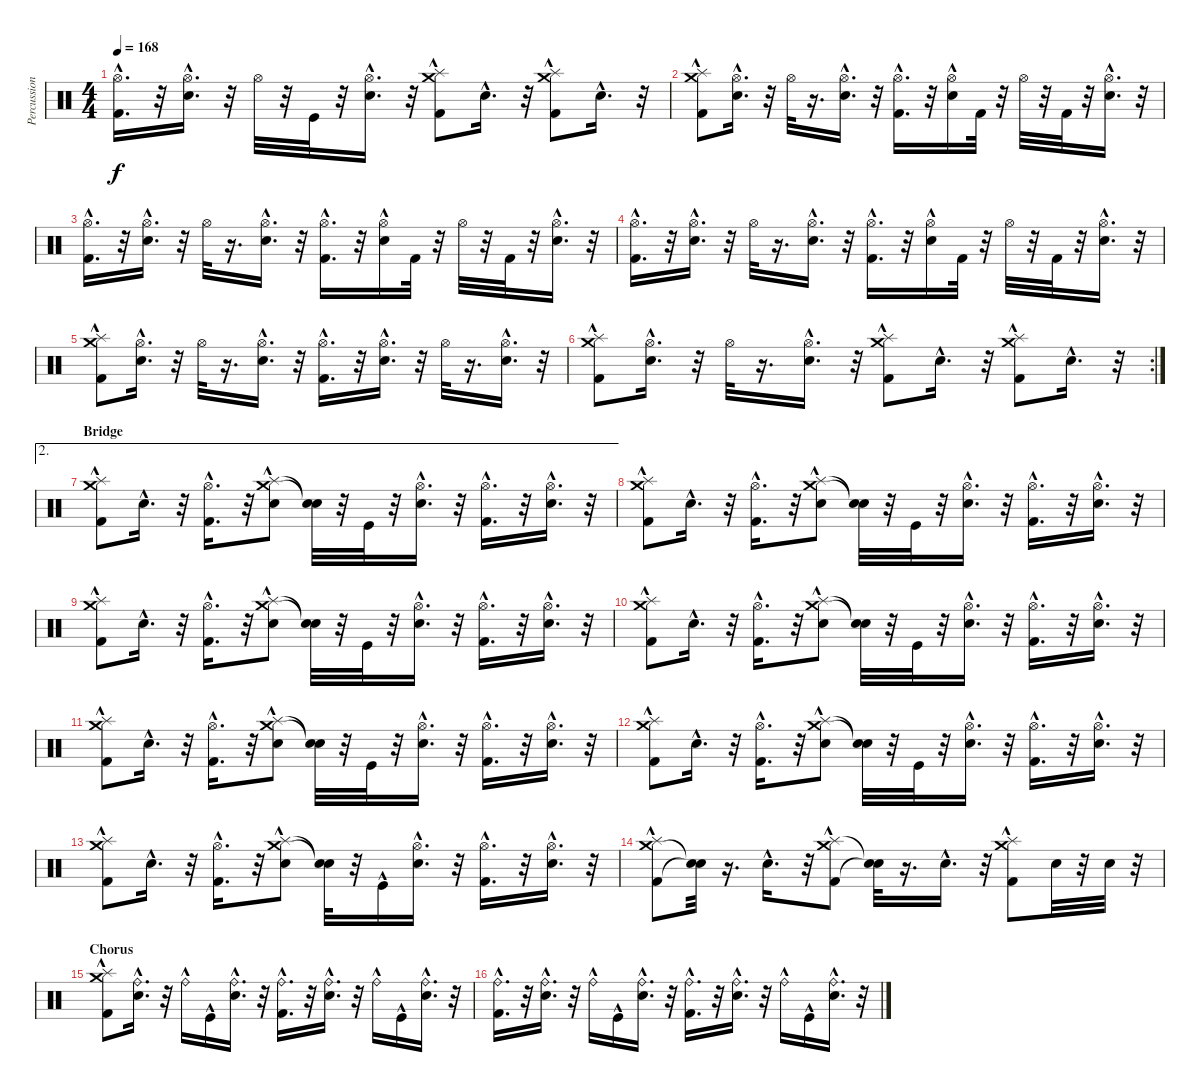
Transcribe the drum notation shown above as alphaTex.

\track ("Percussion" "Percussion") {instrument percussion}
\staff {score}
\articulation defaults
\ts (4 4)
\tempo 168
\clef neutral
\ks c
("Kick (hit) 2"{hac} "Hi-Hat (open)").16{d dy f} r.32 ("Electric Snare (hit)"{hac} "Hi-Hat (open)").16{d} r.32 "Hi-Hat (open)".32 r.32 "Kick (hit)".32 r.32 ("Electric Snare (hit)"{hac} "Hi-Hat (open)").16{d} r.32 ("Kick (hit) 2"{hac} "Splash (hit)" "Crash medium (hit)").8 "Electric Snare (hit)"{hac}.16{d} r.32 ("Kick (hit) 2"{hac} "Crash medium (hit)" "Splash (hit)").8 "Electric Snare (hit)"{hac}.16{d} r.32 |
("Crash medium (hit)" "Splash (hit)" "Kick (hit) 2"{hac}).8 ("Electric Snare (hit)"{hac} "Hi-Hat (open)").16{d} r.32 "Hi-Hat (open)".32 r.16{d} ("Electric Snare (hit)"{hac} "Hi-Hat (open)").16{d} r.32 ("Kick (hit) 2"{hac} "Hi-Hat (open)").16{d} r.32 ("Electric Snare (hit)"{hac} "Hi-Hat (open)").16 "Kick (hit) 2".32 r.32 "Hi-Hat (open)".32 r.32 "Kick (hit) 2".32 r.32 ("Electric Snare (hit)"{hac} "Hi-Hat (open)").16{d} r.32 |
("Kick (hit) 2"{hac} "Hi-Hat (open)").16{d} r.32 ("Electric Snare (hit)"{hac} "Hi-Hat (open)").16{d} r.32 "Hi-Hat (open)".32 r.16{d} ("Electric Snare (hit)"{hac} "Hi-Hat (open)").16{d} r.32 ("Kick (hit) 2"{hac} "Hi-Hat (open)").16{d} r.32 ("Electric Snare (hit)"{hac} "Hi-Hat (open)").16 "Kick (hit) 2".32 r.32 "Hi-Hat (open)".32 r.32 "Kick (hit) 2".32 r.32 ("Electric Snare (hit)"{hac} "Hi-Hat (open)").16{d} r.32 |
("Kick (hit) 2"{hac} "Hi-Hat (open)").16{d} r.32 ("Electric Snare (hit)"{hac} "Hi-Hat (open)").16{d} r.32 "Hi-Hat (open)".32 r.16{d} ("Electric Snare (hit)"{hac} "Hi-Hat (open)").16{d} r.32 ("Kick (hit) 2"{hac} "Hi-Hat (open)").16{d} r.32 ("Electric Snare (hit)"{hac} "Hi-Hat (open)").16 "Kick (hit) 2".32 r.32 "Hi-Hat (open)".32 r.32 "Kick (hit) 2".32 r.32 ("Electric Snare (hit)"{hac} "Hi-Hat (open)").16{d} r.32 |
("Crash medium (hit)" "Splash (hit)" "Kick (hit) 2"{hac}).8 ("Electric Snare (hit)"{hac} "Hi-Hat (open)").16{d} r.32 "Hi-Hat (open)".32 r.16{d} ("Electric Snare (hit)"{hac} "Hi-Hat (open)").16{d} r.32 ("Kick (hit) 2"{hac} "Hi-Hat (open)").16{d} r.32 ("Electric Snare (hit)"{hac} "Hi-Hat (open)").16{d} r.32 "Hi-Hat (open)".32 r.16{d} ("Electric Snare (hit)"{hac} "Hi-Hat (open)").16{d} r.32 |
\rc 2
("Crash medium (hit)" "Splash (hit)" "Kick (hit) 2"{hac}).8 ("Electric Snare (hit)"{hac} "Hi-Hat (open)").16{d} r.32 "Hi-Hat (open)".32 r.16{d} ("Electric Snare (hit)"{hac} "Hi-Hat (open)").16{d} r.32 ("Kick (hit) 2"{hac} "Splash (hit)" "Crash medium (hit)").8 "Electric Snare (hit)"{hac}.16{d} r.32 ("Splash (hit)" "Crash medium (hit)" "Kick (hit) 2"{hac}).8 "Electric Snare (hit)"{hac}.16{d} r.32 |
\ae 2
\section ("" "Bridge")
("Splash (hit)" "Crash medium (hit)" "Kick (hit) 2"{hac}).8 "Electric Snare (hit)"{hac}.16{d} r.32 ("Kick (hit) 2"{hac} "Hi-Hat (open)").16{d} r.32 ("Splash (hit)" "Crash medium (hit)" "Electric Snare (hit)"{hac}).8 ("Snare (hit)"{t} "Snare (hit)"{t}).32 r.32 "Kick (hit)".32 r.32 ("Electric Snare (hit)"{hac} "Hi-Hat (open)").16{d} r.32 ("Kick (hit) 2"{hac} "Hi-Hat (open)").16{d} r.32 ("Electric Snare (hit)"{hac} "Hi-Hat (open)").16{d} r.32 |
("Splash (hit)" "Crash medium (hit)" "Kick (hit) 2"{hac}).8 "Electric Snare (hit)"{hac}.16{d} r.32 ("Kick (hit) 2"{hac} "Hi-Hat (open)").16{d} r.32 ("Splash (hit)" "Crash medium (hit)" "Electric Snare (hit)"{hac}).8 ("Snare (hit)"{t} "Snare (hit)"{t}).32 r.32 "Kick (hit)".32 r.32 ("Electric Snare (hit)"{hac} "Hi-Hat (open)").16{d} r.32 ("Kick (hit) 2"{hac} "Hi-Hat (open)").16{d} r.32 ("Electric Snare (hit)"{hac} "Hi-Hat (open)").16{d} r.32 |
("Splash (hit)" "Crash medium (hit)" "Kick (hit) 2"{hac}).8 "Electric Snare (hit)"{hac}.16{d} r.32 ("Kick (hit) 2"{hac} "Hi-Hat (open)").16{d} r.32 ("Splash (hit)" "Crash medium (hit)" "Electric Snare (hit)"{hac}).8 ("Snare (hit)"{t} "Snare (hit)"{t}).32 r.32 "Kick (hit)".32 r.32 ("Electric Snare (hit)"{hac} "Hi-Hat (open)").16{d} r.32 ("Kick (hit) 2"{hac} "Hi-Hat (open)").16{d} r.32 ("Electric Snare (hit)"{hac} "Hi-Hat (open)").16{d} r.32 |
("Splash (hit)" "Crash medium (hit)" "Kick (hit) 2"{hac}).8 "Electric Snare (hit)"{hac}.16{d} r.32 ("Kick (hit) 2"{hac} "Hi-Hat (open)").16{d} r.32 ("Splash (hit)" "Crash medium (hit)" "Electric Snare (hit)"{hac}).8 ("Snare (hit)"{t} "Snare (hit)"{t}).32 r.32 "Kick (hit)".32 r.32 ("Electric Snare (hit)"{hac} "Hi-Hat (open)").16{d} r.32 ("Kick (hit) 2"{hac} "Hi-Hat (open)").16{d} r.32 ("Electric Snare (hit)"{hac} "Hi-Hat (open)").16{d} r.32 |
("Splash (hit)" "Crash medium (hit)" "Kick (hit) 2"{hac}).8 "Electric Snare (hit)"{hac}.16{d} r.32 ("Kick (hit) 2"{hac} "Hi-Hat (open)").16{d} r.32 ("Splash (hit)" "Crash medium (hit)" "Electric Snare (hit)"{hac}).8 ("Snare (hit)"{t} "Snare (hit)"{t}).32 r.32 "Kick (hit)".32 r.32 ("Electric Snare (hit)"{hac} "Hi-Hat (open)").16{d} r.32 ("Kick (hit) 2"{hac} "Hi-Hat (open)").16{d} r.32 ("Electric Snare (hit)"{hac} "Hi-Hat (open)").16{d} r.32 |
("Splash (hit)" "Crash medium (hit)" "Kick (hit) 2"{hac}).8 "Electric Snare (hit)"{hac}.16{d} r.32 ("Kick (hit) 2"{hac} "Hi-Hat (open)").16{d} r.32 ("Splash (hit)" "Crash medium (hit)" "Electric Snare (hit)"{hac}).8 ("Snare (hit)"{t} "Snare (hit)"{t}).32 r.32 "Kick (hit)".32 r.32 ("Electric Snare (hit)"{hac} "Hi-Hat (open)").16{d} r.32 ("Kick (hit) 2"{hac} "Hi-Hat (open)").16{d} r.32 ("Electric Snare (hit)"{hac} "Hi-Hat (open)").16{d} r.32 |
("Crash medium (hit)" "Splash (hit)" "Kick (hit) 2"{hac}).8 "Electric Snare (hit)"{hac}.16{d} r.32 ("Kick (hit) 2"{hac} "Hi-Hat (open)").16{d} r.32 ("Crash medium (hit)" "Splash (hit)" "Electric Snare (hit)"{hac}).8 ("Snare (hit)"{t} "Snare (hit)"{t}).32 r.32 "Kick (hit)"{hac}.16 ("Electric Snare (hit)"{hac} "Hi-Hat (open)").16{d} r.32 ("Kick (hit) 2"{hac} "Hi-Hat (open)").16{d} r.32 ("Electric Snare (hit)"{hac} "Hi-Hat (open)").16{d} r.32 |
("Kick (hit) 2"{hac} "Crash medium (hit)" "Splash (hit)").8 ("Snare (hit)"{t} "Snare (hit)"{t}).32 r.16{d} "Electric Snare (hit)"{hac}.16{d} r.32 ("Kick (hit) 2"{hac} "Splash (hit)" "Crash medium (hit)").8 ("Snare (hit)"{t} "Snare (hit)"{t}).32 r.16{d} "Electric Snare (hit)"{hac}.16{d} r.32 ("Kick (hit) 2"{hac} "Crash medium (hit)" "Splash (hit)").8 "Electric Snare (hit)".32 r.32 "Electric Snare (hit)".32 r.32 |
\section ("" "Chorus")
("Splash (hit)" "Crash medium (hit)" "Kick (hit) 2"{hac}).8 ("Ride (bell)"{hac} "Electric Snare (hit)"{hac}).16{d} r.32 "Ride (bell)"{hac}.16 "Kick (hit)"{hac}.16 ("Ride (bell)"{hac} "Electric Snare (hit)"{hac}).16{d} r.32 ("Ride (bell)"{hac} "Kick (hit) 2"{hac}).16{d} r.32 ("Ride (bell)"{hac} "Electric Snare (hit)"{hac}).16{d} r.32 "Ride (bell)"{hac}.16 "Kick (hit)"{hac}.16 ("Ride (bell)"{hac} "Electric Snare (hit)"{hac}).16{d} r.32 |
("Kick (hit) 2"{hac} "Ride (bell)"{hac}).16{d} r.32 ("Electric Snare (hit)"{hac} "Ride (bell)"{hac}).16{d} r.32 "Ride (bell)"{hac}.16 "Kick (hit)"{hac}.16 ("Electric Snare (hit)"{hac} "Ride (bell)"{hac}).16{d} r.32 ("Kick (hit) 2"{hac} "Ride (bell)"{hac}).16{d} r.32 ("Electric Snare (hit)"{hac} "Ride (bell)"{hac}).16{d} r.32 "Ride (bell)"{hac}.16 "Kick (hit)"{hac}.16 ("Electric Snare (hit)"{hac} "Ride (bell)"{hac}).16{d} r.32
